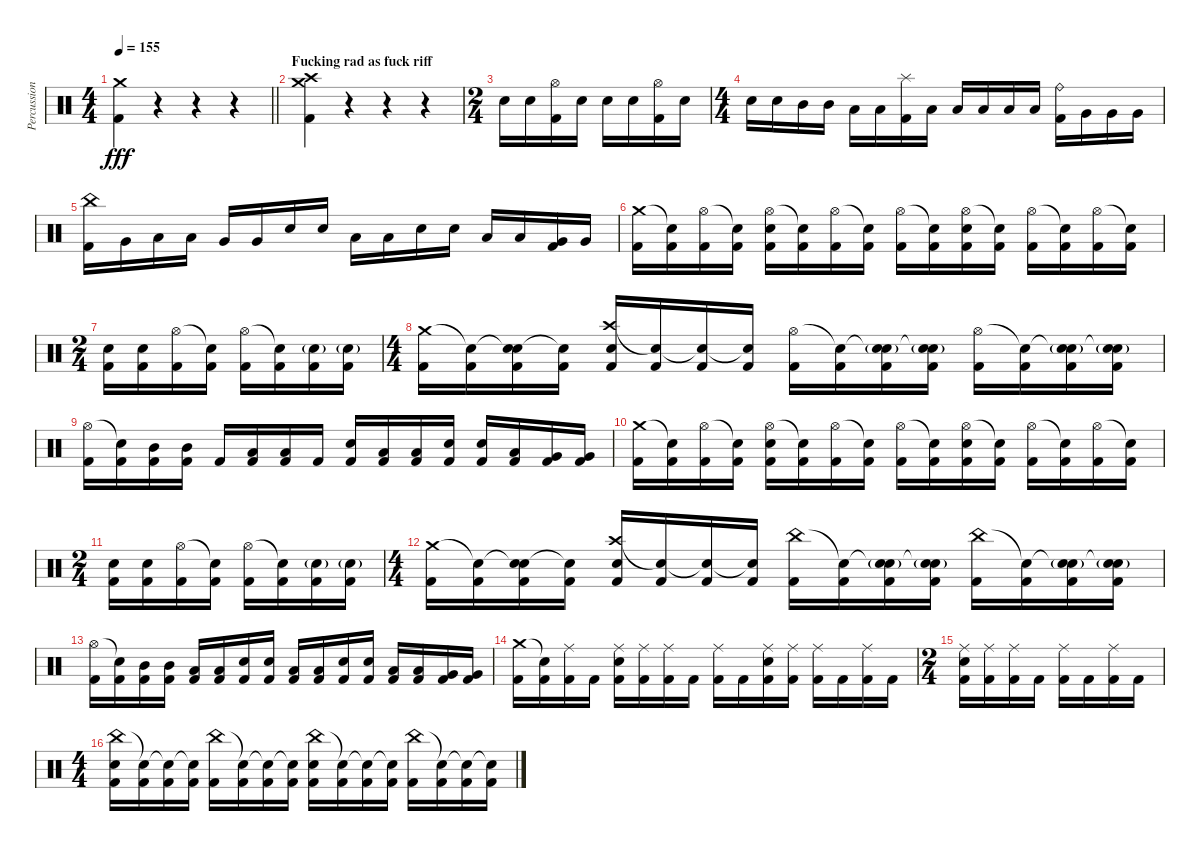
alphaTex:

\track ("Percussion" "Percussion") {instrument percussion}
\staff {score}
\articulation defaults
\ts (4 4)
\tempo 155
\clef neutral
\barLineRight lightlight
\ks c
("Crash medium (hit)" "Kick (hit) 2").4{dy fff} r.4 r.4 r.4 |
\section ("" "Fucking rad as fuck riff")
("Crash medium (hit)" "Crash high (hit)" "Kick (hit) 2").4 r.4 r.4 r.4 |
\ts (2 4)
"Electric Snare (hit)".16 "Electric Snare (hit)".16 ("Hi-Hat (open)" "Kick (hit) 2").16 "Electric Snare (hit)".16 "Electric Snare (hit)".16 "Electric Snare (hit)".16 ("Hi-Hat (open)" "Kick (hit) 2").16 "Electric Snare (hit)".16 |
\ts (4 4)
"Electric Snare (hit)".16 "Electric Snare (hit)".16 "Mid Tom (hit)".16 "Mid Tom (hit)".16 "Low Tom (hit)".16 "Low Tom (hit)".16 ("Splash (hit)" "Kick (hit) 2").16 "Low Tom (hit)".16 "Low Tom (hit)".16 "Low Tom (hit)".16 "Low Tom (hit)".16 "Low Tom (hit)".16 ("Ride (bell)" "Kick (hit) 2").16 "Very Low Tom (hit)".16 "Very Low Tom (hit)".16 "Very Low Tom (hit)".16 |
("China (hit)" "Kick (hit) 2").16 "Very Low Tom (hit)".16 "Low Tom (hit)".16 "Low Tom (hit)".16 "Very Low Tom (hit)".16 "Very Low Tom (hit)".16 "Electric Snare (hit)".16 "Electric Snare (hit)".16 "Low Tom (hit)".16 "Low Tom (hit)".16 "Electric Snare (hit)".16 "Electric Snare (hit)".16 "Low Tom (hit)".16 "Low Tom (hit)".16 ("Very Low Tom (hit)" "Kick (hit) 2").16 "Very Low Tom (hit)".16 |
("Crash medium (hit)" "Kick (hit) 2").16 ("Snare (hit)"{t} "Kick (hit) 2").16 ("Hi-Hat (open)" "Kick (hit) 2").16 ("Snare (hit)"{t} "Kick (hit) 2").16 ("Hi-Hat (open)" "Electric Snare (hit)" "Kick (hit) 2").16 ("Snare (hit)"{t} "Kick (hit) 2").16 ("Hi-Hat (open)" "Kick (hit) 2").16 ("Snare (hit)"{t} "Kick (hit) 2").16 ("Hi-Hat (open)" "Kick (hit) 2").16 ("Snare (hit)"{t} "Kick (hit) 2").16 ("Hi-Hat (open)" "Electric Snare (hit)" "Kick (hit) 2").16 ("Snare (hit)"{t} "Kick (hit) 2").16 ("Hi-Hat (open)" "Kick (hit) 2").16 ("Snare (hit)"{t} "Kick (hit) 2").16 ("Hi-Hat (open)" "Kick (hit) 2").16 ("Snare (hit)"{t} "Kick (hit) 2").16 |
\ts (2 4)
("Electric Snare (hit)" "Kick (hit) 2").16 ("Electric Snare (hit)" "Kick (hit) 2").16 ("Hi-Hat (open)" "Kick (hit) 2").16 ("Snare (hit)"{t} "Kick (hit) 2").16 ("Hi-Hat (open)" "Kick (hit) 2").16 ("Snare (hit)"{t} "Kick (hit) 2").16 ("Snare (hit) 2"{g} "Kick (hit) 2").16 ("Snare (hit) 2"{g} "Kick (hit) 2").16 |
\ts (4 4)
("Crash medium (hit)" "Kick (hit) 2").16 ("Snare (hit)"{t} "Kick (hit) 2").16 ("Snare (hit)"{t} "Electric Snare (hit)" "Kick (hit) 2").16 ("Snare (hit)"{t} "Kick (hit) 2").16 ("Crash high (hit)" "Electric Snare (hit)" "Kick (hit) 2").16 ("Snare (hit)"{t} "Kick (hit) 2").16 ("Snare (hit)"{t} "Kick (hit) 2").16 ("Snare (hit)"{t} "Kick (hit) 2").16 ("Hi-Hat (open)" "Kick (hit) 2").16 ("Snare (hit)"{t} "Kick (hit) 2").16 ("Snare (hit)"{t} "Snare (hit) 2"{g} "Kick (hit) 2").16 ("Snare (hit)"{t} "Snare (hit) 2"{g} "Kick (hit) 2").16 ("Hi-Hat (open)" "Kick (hit) 2").16 ("Snare (hit)"{t} "Kick (hit) 2").16 ("Snare (hit)"{t} "Snare (hit) 2"{g} "Kick (hit) 2").16 ("Snare (hit)"{t} "Snare (hit) 2"{g} "Kick (hit) 2").16 |
("Hi-Hat (open)" "Kick (hit) 2").16 ("Snare (hit)"{t} "Kick (hit) 2").16 ("Mid Tom (hit)" "Kick (hit) 2").16 ("Mid Tom (hit)" "Kick (hit) 2").16 "Kick (hit) 2".16 ("Low Tom (hit)" "Kick (hit) 2").16 ("Low Tom (hit)" "Kick (hit) 2").16 "Kick (hit) 2".16 ("Electric Snare (hit)" "Kick (hit) 2").16 ("Low Tom (hit)" "Kick (hit) 2").16 ("Low Tom (hit)" "Kick (hit) 2").16 ("Electric Snare (hit)" "Kick (hit) 2").16 ("Electric Snare (hit)" "Kick (hit) 2").16 ("Low Tom (hit)" "Kick (hit) 2").16 ("Very Low Tom (hit)" "Kick (hit) 2").16 ("Very Low Tom (hit)" "Kick (hit) 2").16 |
("Crash medium (hit)" "Kick (hit) 2").16 ("Snare (hit)"{t} "Kick (hit) 2").16 ("Hi-Hat (open)" "Kick (hit) 2").16 ("Snare (hit)"{t} "Kick (hit) 2").16 ("Hi-Hat (open)" "Electric Snare (hit)" "Kick (hit) 2").16 ("Snare (hit)"{t} "Kick (hit) 2").16 ("Hi-Hat (open)" "Kick (hit) 2").16 ("Snare (hit)"{t} "Kick (hit) 2").16 ("Hi-Hat (open)" "Kick (hit) 2").16 ("Snare (hit)"{t} "Kick (hit) 2").16 ("Hi-Hat (open)" "Electric Snare (hit)" "Kick (hit) 2").16 ("Snare (hit)"{t} "Kick (hit) 2").16 ("Hi-Hat (open)" "Kick (hit) 2").16 ("Snare (hit)"{t} "Kick (hit) 2").16 ("Hi-Hat (open)" "Kick (hit) 2").16 ("Snare (hit)"{t} "Kick (hit) 2").16 |
\ts (2 4)
("Electric Snare (hit)" "Kick (hit) 2").16 ("Electric Snare (hit)" "Kick (hit) 2").16 ("Hi-Hat (open)" "Kick (hit) 2").16 ("Snare (hit)"{t} "Kick (hit) 2").16 ("Hi-Hat (open)" "Kick (hit) 2").16 ("Snare (hit)"{t} "Kick (hit) 2").16 ("Snare (hit) 2"{g} "Kick (hit) 2").16 ("Snare (hit) 2"{g} "Kick (hit) 2").16 |
\ts (4 4)
("Crash medium (hit)" "Kick (hit) 2").16 ("Snare (hit)"{t} "Kick (hit) 2").16 ("Snare (hit)"{t} "Electric Snare (hit)" "Kick (hit) 2").16 ("Snare (hit)"{t} "Kick (hit) 2").16 ("Crash high (hit)" "Electric Snare (hit)" "Kick (hit) 2").16 ("Snare (hit)"{t} "Kick (hit) 2").16 ("Snare (hit)"{t} "Kick (hit) 2").16 ("Snare (hit)"{t} "Kick (hit) 2").16 ("China (hit)" "Kick (hit) 2").16 ("Snare (hit)"{t} "Kick (hit) 2").16 ("Snare (hit)"{t} "Snare (hit) 2"{g} "Kick (hit) 2").16 ("Snare (hit)"{t} "Snare (hit) 2"{g} "Kick (hit) 2").16 ("China (hit)" "Kick (hit) 2").16 ("Snare (hit)"{t} "Kick (hit) 2").16 ("Snare (hit)"{t} "Snare (hit) 2"{g} "Kick (hit) 2").16 ("Snare (hit)"{t} "Snare (hit) 2"{g} "Kick (hit) 2").16 |
("Hi-Hat (open)" "Kick (hit) 2").16 ("Snare (hit)"{t} "Kick (hit) 2").16 ("Mid Tom (hit)" "Kick (hit) 2").16 ("Mid Tom (hit)" "Kick (hit) 2").16 ("Low Tom (hit)" "Kick (hit) 2").16 ("Low Tom (hit)" "Kick (hit) 2").16 ("Electric Snare (hit)" "Kick (hit) 2").16 ("Electric Snare (hit)" "Kick (hit) 2").16 ("Low Tom (hit)" "Kick (hit) 2").16 ("Low Tom (hit)" "Kick (hit) 2").16 ("Electric Snare (hit)" "Kick (hit) 2").16 ("Electric Snare (hit)" "Kick (hit) 2").16 ("Low Tom (hit)" "Kick (hit) 2").16 ("Low Tom (hit)" "Kick (hit) 2").16 ("Very Low Tom (hit)" "Kick (hit) 2").16 ("Very Low Tom (hit)" "Kick (hit) 2").16 |
("Crash medium (hit)" "Kick (hit) 2").16 ("Snare (hit)"{t} "Kick (hit) 2").16 ("Ride (middle)" "Kick (hit) 2").16 "Kick (hit) 2".16 ("Ride (middle)" "Electric Snare (hit)" "Kick (hit) 2").16 ("Ride (middle)" "Kick (hit) 2").16 ("Ride (middle)" "Kick (hit) 2").16 "Kick (hit) 2".16 ("Ride (middle)" "Kick (hit) 2").16 "Kick (hit) 2".16 ("Ride (middle)" "Electric Snare (hit)" "Kick (hit) 2").16 ("Ride (middle)" "Kick (hit) 2").16 ("Ride (middle)" "Kick (hit) 2").16 "Kick (hit) 2".16 ("Ride (middle)" "Kick (hit) 2").16 "Kick (hit) 2".16 |
\ts (2 4)
("Ride (middle)" "Electric Snare (hit)" "Kick (hit) 2").16 ("Ride (middle)" "Kick (hit) 2").16 ("Ride (middle)" "Kick (hit) 2").16 "Kick (hit) 2".16 ("Ride (middle)" "Kick (hit) 2").16 "Kick (hit) 2".16 ("Ride (middle)" "Kick (hit) 2").16 "Kick (hit) 2".16 |
\ts (4 4)
("China (hit)" "Electric Snare (hit)" "Kick (hit) 2").16 ("Snare (hit)"{t} "Kick (hit) 2").16 ("Snare (hit)"{t} "Kick (hit) 2").16 ("Snare (hit)"{t} "Kick (hit) 2").16 ("China (hit)" "Kick (hit) 2").16 ("Snare (hit)"{t} "Kick (hit) 2").16 ("Snare (hit)"{t} "Kick (hit) 2").16 ("Snare (hit)"{t} "Kick (hit) 2").16 ("China (hit)" "Electric Snare (hit)" "Kick (hit) 2").16 ("Snare (hit)"{t} "Kick (hit) 2").16 ("Snare (hit)"{t} "Kick (hit) 2").16 ("Snare (hit)"{t} "Kick (hit) 2").16 ("China (hit)" "Kick (hit) 2").16 ("Snare (hit)"{t} "Kick (hit) 2").16 ("Snare (hit)"{t} "Kick (hit) 2").16 ("Snare (hit)"{t} "Kick (hit) 2").16
